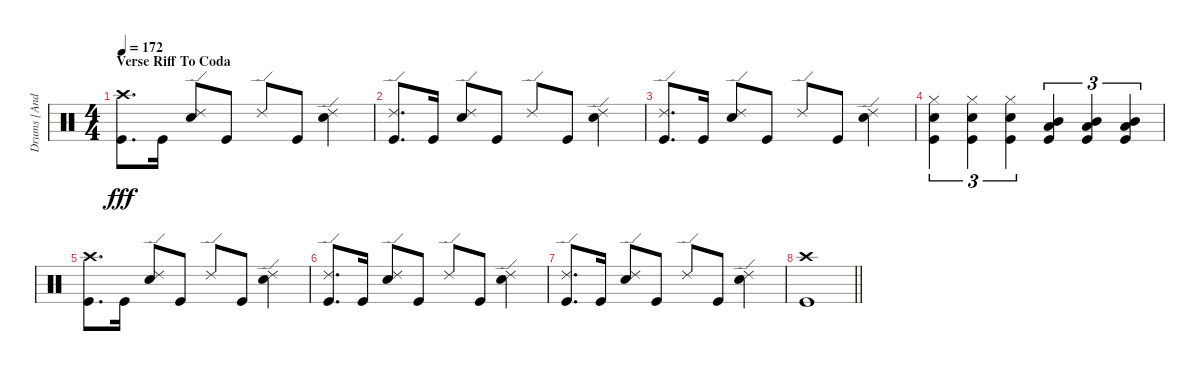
\track ("Drums [Andrew Forsman]" "Drums [And") {instrument percussion}
\staff {score}
\articulation defaults
\ts (4 4)
\section ("" "Verse Riff To Coda")
\tempo 172
\clef neutral
\ks c
("Crash high (hit)" "Kick (hit)").8{d dy fff} "Kick (hit)".16 ("Ride (edge) 2" "Snare (hit) 2").8 "Kick (hit)".8 "Ride (edge) 2".8 "Kick (hit)".8 ("Ride (edge) 2" "Snare (hit) 2").4 |
("Ride (edge) 2" "Kick (hit)").8{d} "Kick (hit)".16 ("Ride (edge) 2" "Snare (hit) 2").8 "Kick (hit)".8 "Ride (edge) 2".8 "Kick (hit)".8 ("Ride (edge) 2" "Snare (hit) 2").4 |
("Ride (edge) 2" "Kick (hit)").8{d} "Kick (hit)".16 ("Ride (edge) 2" "Snare (hit) 2").8 "Kick (hit)".8 "Ride (edge) 2".8 "Kick (hit)".8 ("Ride (edge) 2" "Snare (hit) 2").4 |
("Hi-Hat (closed)" "Snare (hit) 2" "Kick (hit)").4{tu (3 2)} ("Hi-Hat (closed)" "Snare (hit) 2" "Kick (hit)").4{tu (3 2)} ("Hi-Hat (closed)" "Snare (hit) 2" "Kick (hit)").4{tu (3 2)} ("Mid Tom (hit)" "Low Tom (hit)" "Kick (hit)").4{tu (3 2)} ("Mid Tom (hit)" "Low Tom (hit)" "Kick (hit)").4{tu (3 2)} ("Mid Tom (hit)" "Low Tom (hit)" "Kick (hit)").4{tu (3 2)} |
("Crash high (hit)" "Kick (hit)").8{d} "Kick (hit)".16 ("Ride (edge) 2" "Snare (hit) 2").8 "Kick (hit)".8 "Ride (edge) 2".8 "Kick (hit)".8 ("Ride (edge) 2" "Snare (hit) 2").4 |
("Ride (edge) 2" "Kick (hit)").8{d} "Kick (hit)".16 ("Ride (edge) 2" "Snare (hit) 2").8 "Kick (hit)".8 "Ride (edge) 2".8 "Kick (hit)".8 ("Ride (edge) 2" "Snare (hit) 2").4 |
("Ride (edge) 2" "Kick (hit)").8{d} "Kick (hit)".16 ("Ride (edge) 2" "Snare (hit) 2").8 "Kick (hit)".8 "Ride (edge) 2".8 "Kick (hit)".8 ("Ride (edge) 2" "Snare (hit) 2").4 |
\barLineRight lightlight
("Crash high (hit)" "Kick (hit)").1
